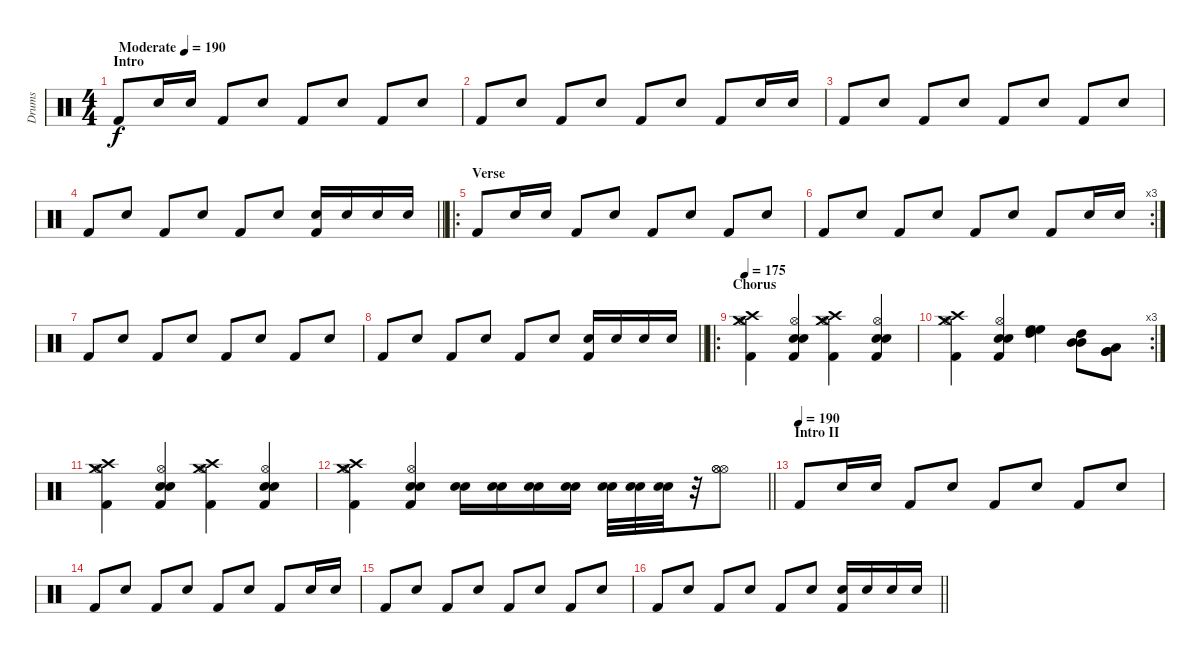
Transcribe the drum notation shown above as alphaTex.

\track ("Drums" "Drums") {instrument percussion}
\staff {score}
\articulation defaults
\ts (4 4)
\section ("" "Intro")
\tempo (190 "Moderate")
\clef neutral
\ks c "Kick (hit) 2".8{dy f} "Electric Snare (hit)".16 "Electric Snare (hit)".16 "Kick (hit) 2".8 "Electric Snare (hit)".8 "Kick (hit) 2".8 "Electric Snare (hit)".8 "Kick (hit) 2".8 "Electric Snare (hit)".8
|
"Kick (hit) 2".8 "Electric Snare (hit)".8 "Kick (hit) 2".8 "Electric Snare (hit)".8 "Kick (hit) 2".8 "Electric Snare (hit)".8 "Kick (hit) 2".8 "Electric Snare (hit)".16 "Electric Snare (hit)".16 |
"Kick (hit) 2".8 "Electric Snare (hit)".8 "Kick (hit) 2".8 "Electric Snare (hit)".8 "Kick (hit) 2".8 "Electric Snare (hit)".8 "Kick (hit) 2".8 "Electric Snare (hit)".8 |
\barLineRight lightlight "Kick (hit) 2".8 "Electric Snare (hit)".8 "Kick (hit) 2".8 "Electric Snare (hit)".8 "Kick (hit) 2".8 "Electric Snare (hit)".8
("Electric Snare (hit)" "Kick (hit) 2").16 "Electric Snare (hit)".16 "Electric Snare (hit)".16 "Electric Snare (hit)".16 |
\ro
\section ("" "Verse")
"Kick (hit) 2".8 "Electric Snare (hit)".16 "Electric Snare (hit)".16 "Kick (hit) 2".8 "Electric Snare (hit)".8 "Kick (hit) 2".8 "Electric Snare (hit)".8 "Kick (hit) 2".8 "Electric Snare (hit)".8 |
\rc 3 "Kick (hit) 2".8 "Electric Snare (hit)".8 "Kick (hit) 2".8 "Electric Snare (hit)".8 "Kick (hit) 2".8 "Electric Snare (hit)".8 "Kick (hit) 2".8 "Electric Snare (hit)".16 "Electric Snare (hit)".16
|
"Kick (hit) 2".8 "Electric Snare (hit)".8 "Kick (hit) 2".8 "Electric Snare (hit)".8 "Kick (hit) 2".8 "Electric Snare (hit)".8 "Kick (hit) 2".8 "Electric Snare (hit)".8 |
\barLineRight lightlight "Kick (hit) 2".8 "Electric Snare (hit)".8 "Kick (hit) 2".8 "Electric Snare (hit)".8 "Kick (hit) 2".8 "Electric Snare (hit)".8
("Electric Snare (hit)" "Kick (hit) 2").16 "Electric Snare (hit)".16 "Electric Snare (hit)".16 "Electric Snare (hit)".16 |
\ro
\section ("" "Chorus")
\tempo 175
("Crash high (hit)" "Hi-Hat (open)" "Kick (hit) 2" "Crash medium (hit)").4 ("Hi-Hat (open)" "Snare (hit) 2" "Kick (hit) 2" "Electric Snare (hit)").4 ("Crash high (hit)" "Hi-Hat (open)" "Kick (hit) 2" "Crash medium (hit)").4 ("Hi-Hat (open)" "Snare (hit) 2" "Kick (hit) 2" "Electric Snare (hit)").4 |
\rc 3
("Crash high (hit)" "Hi-Hat (open)" "Kick (hit) 2" "Crash medium (hit)").4 ("Hi-Hat (open)" "Snare (hit) 2" "Kick (hit) 2" "Electric Snare (hit)").4 ("High Floor Tom (hit)" "High Tom (hit)" "High Floor Tom (hit)").4 ("High Tom (hit)" "Mid Tom (hit)" "Mid Tom (hit)").8 ("Low Tom (hit)" "Very Low Tom (hit)" "Very Low Tom (hit)").8 |
("Crash high (hit)" "Hi-Hat (open)" "Kick (hit) 2" "Crash medium (hit)").4 ("Hi-Hat (open)" "Snare (hit) 2" "Kick (hit) 2" "Electric Snare (hit)").4 ("Crash high (hit)" "Hi-Hat (open)" "Kick (hit) 2" "Crash medium (hit)").4 ("Hi-Hat (open)" "Snare (hit) 2" "Kick (hit) 2" "Electric Snare (hit)").4 |
\barLineRight lightlight
("Crash high (hit)" "Hi-Hat (open)" "Kick (hit) 2" "Crash medium (hit)").4 ("Hi-Hat (open)" "Snare (hit) 2" "Kick (hit) 2" "Electric Snare (hit)").4 ("Snare (hit) 2" "Electric Snare (hit)").16 ("Snare (hit) 2" "Electric Snare (hit)").16 ("Snare (hit) 2" "Electric Snare (hit)").16 ("Snare (hit) 2" "Electric Snare (hit)").16 ("Snare (hit) 2" "Electric Snare (hit)").32 ("Snare (hit) 2" "Electric Snare (hit)").32 ("Snare (hit) 2" "Electric Snare (hit)").32 r.32 ("Hi-Hat (open)" "Hi-Hat (open)" "Hi-Hat (open)").8 |
\section ("" "Intro II")
\tempo (190)
"Kick (hit) 2".8 "Electric Snare (hit)".16 "Electric Snare (hit)".16 "Kick (hit) 2".8 "Electric Snare (hit)".8 "Kick (hit) 2".8 "Electric Snare (hit)".8 "Kick (hit) 2".8 "Electric Snare (hit)".8 |
"Kick (hit) 2".8 "Electric Snare (hit)".8 "Kick (hit) 2".8 "Electric Snare (hit)".8 "Kick (hit) 2".8 "Electric Snare (hit)".8 "Kick (hit) 2".8 "Electric Snare (hit)".16 "Electric Snare (hit)".16 |
"Kick (hit) 2".8 "Electric Snare (hit)".8 "Kick (hit) 2".8 "Electric Snare (hit)".8 "Kick (hit) 2".8 "Electric Snare (hit)".8 "Kick (hit) 2".8 "Electric Snare (hit)".8 |
\barLineRight lightlight "Kick (hit) 2".8 "Electric Snare (hit)".8 "Kick (hit) 2".8 "Electric Snare (hit)".8 "Kick (hit) 2".8 "Electric Snare (hit)".8
("Electric Snare (hit)" "Kick (hit) 2").16 "Electric Snare (hit)".16 "Electric Snare (hit)".16 "Electric Snare (hit)".16
